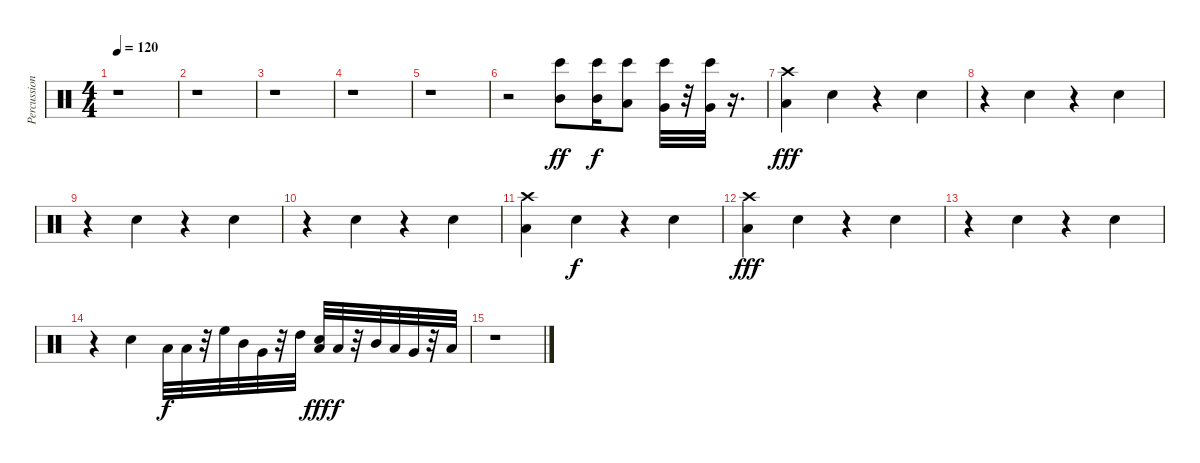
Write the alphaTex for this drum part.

\track ("Percussions" "Percussion") {instrument percussion}
\staff {score}
\articulation defaults
\ts (4 4)
\tempo 120
\clef neutral
\ks c
r.1{dy f} |
r.1 |
r.1 |
r.1 |
r.1 |
r.2 ("Bongo High (hit)" "Mid Tom (hit)").8{dy ff} ("Bongo High (hit)" "Mid Tom (hit)").16{dy f} ("Bongo High (hit)" "Low Tom (hit)").8 ("Bongo High (hit)" "Very Low Tom (hit)").32 r.32 ("Bongo High (hit)" "Very Low Tom (hit)").32 r.16{d} |
("Low Floor Tom (hit)" "Crash high (hit)").4{dy fff} "Snare (hit) 2".4 r.4 "Snare (hit) 2".4 |
r.4 "Snare (hit) 2".4 r.4 "Snare (hit) 2".4 |
r.4 "Snare (hit) 2".4 r.4 "Snare (hit) 2".4 |
r.4 "Snare (hit) 2".4 r.4 "Snare (hit) 2".4 |
("Low Floor Tom (hit)" "Crash high (hit)").4 "Snare (hit) 2".4{dy f} r.4 "Snare (hit) 2".4 |
("Low Floor Tom (hit)" "Crash high (hit)").4{dy fff} "Snare (hit) 2".4 r.4 "Snare (hit) 2".4 |
r.4 "Snare (hit) 2".4 r.4 "Snare (hit) 2".4 |
r.4 "Snare (hit) 2".4 "Low Floor Tom (hit)".32{dy f} "Low Floor Tom (hit)".32 r.32 "High Floor Tom (hit)".32 "Mid Tom (hit)".32 "Very Low Tom (hit)".32 r.32 "High Tom (hit)".32 ("Low Tom (hit)" "Snare (hit) 2").32{dy fff} "Low Floor Tom (hit)".32{dy f} r.32 "Mid Tom (hit)".32 "Low Tom (hit)".32 "Very Low Tom (hit)".32 r.32 "Low Floor Tom (hit)".32 |
r.1
